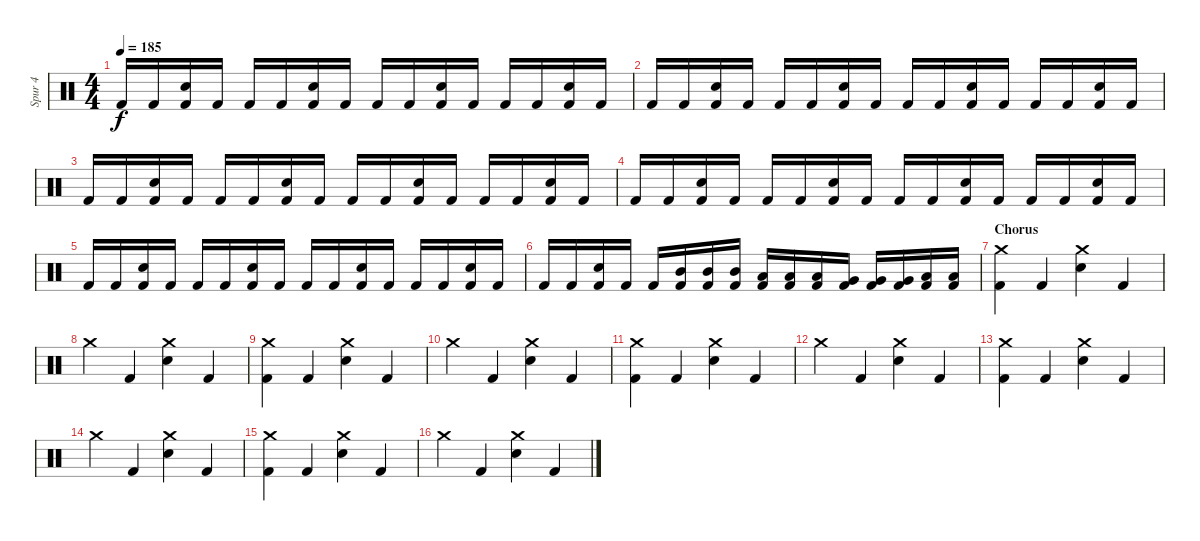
\track ("Spur 4" "Spur 4") {instrument percussion}
\staff {score}
\articulation defaults
\ts (4 4)
\tempo 185
\clef neutral
\ks c "Kick (hit) 2".16{dy f} "Kick (hit) 2".16
("Electric Snare (hit)" "Kick (hit) 2").16 "Kick (hit) 2".16 "Kick (hit) 2".16 "Kick (hit) 2".16 ("Electric Snare (hit)" "Kick (hit) 2").16 "Kick (hit) 2".16 "Kick (hit) 2".16 "Kick (hit) 2".16 ("Electric Snare (hit)" "Kick (hit) 2").16 "Kick (hit) 2".16 "Kick (hit) 2".16 "Kick (hit) 2".16 ("Electric Snare (hit)" "Kick (hit) 2").16 "Kick (hit) 2".16 |
"Kick (hit) 2".16 "Kick (hit) 2".16 ("Electric Snare (hit)" "Kick (hit) 2").16 "Kick (hit) 2".16 "Kick (hit) 2".16 "Kick (hit) 2".16 ("Electric Snare (hit)" "Kick (hit) 2").16 "Kick (hit) 2".16 "Kick (hit) 2".16 "Kick (hit) 2".16 ("Electric Snare (hit)" "Kick (hit) 2").16 "Kick (hit) 2".16 "Kick (hit) 2".16 "Kick (hit) 2".16 ("Electric Snare (hit)" "Kick (hit) 2").16 "Kick (hit) 2".16 |
"Kick (hit) 2".16 "Kick (hit) 2".16 ("Electric Snare (hit)" "Kick (hit) 2").16 "Kick (hit) 2".16 "Kick (hit) 2".16 "Kick (hit) 2".16 ("Electric Snare (hit)" "Kick (hit) 2").16 "Kick (hit) 2".16 "Kick (hit) 2".16 "Kick (hit) 2".16 ("Electric Snare (hit)" "Kick (hit) 2").16 "Kick (hit) 2".16 "Kick (hit) 2".16 "Kick (hit) 2".16 ("Electric Snare (hit)" "Kick (hit) 2").16 "Kick (hit) 2".16 |
"Kick (hit) 2".16 "Kick (hit) 2".16 ("Electric Snare (hit)" "Kick (hit) 2").16 "Kick (hit) 2".16 "Kick (hit) 2".16 "Kick (hit) 2".16 ("Electric Snare (hit)" "Kick (hit) 2").16 "Kick (hit) 2".16 "Kick (hit) 2".16 "Kick (hit) 2".16 ("Electric Snare (hit)" "Kick (hit) 2").16 "Kick (hit) 2".16 "Kick (hit) 2".16 "Kick (hit) 2".16 ("Electric Snare (hit)" "Kick (hit) 2").16 "Kick (hit) 2".16 |
"Kick (hit) 2".16 "Kick (hit) 2".16 ("Electric Snare (hit)" "Kick (hit) 2").16 "Kick (hit) 2".16 "Kick (hit) 2".16 "Kick (hit) 2".16 ("Electric Snare (hit)" "Kick (hit) 2").16 "Kick (hit) 2".16 "Kick (hit) 2".16 "Kick (hit) 2".16 ("Electric Snare (hit)" "Kick (hit) 2").16 "Kick (hit) 2".16 "Kick (hit) 2".16 "Kick (hit) 2".16 ("Electric Snare (hit)" "Kick (hit) 2").16 "Kick (hit) 2".16 |
"Kick (hit) 2".16 "Kick (hit) 2".16 ("Electric Snare (hit)" "Kick (hit) 2").16 "Kick (hit) 2".16 "Kick (hit) 2".16 ("Mid Tom (hit)" "Kick (hit) 2").16 ("Mid Tom (hit)" "Kick (hit) 2").16 ("Mid Tom (hit)" "Kick (hit) 2").16 ("Low Tom (hit)" "Kick (hit) 2").16 ("Low Tom (hit)" "Kick (hit) 2").16 ("Low Tom (hit)" "Kick (hit) 2").16 ("Very Low Tom (hit)" "Kick (hit) 2").16 ("Very Low Tom (hit)" "Kick (hit) 2").16 ("Very Low Tom (hit)" "Kick (hit) 2").16 ("Low Floor Tom (hit)" "Kick (hit) 2").16 ("Low Floor Tom (hit)" "Kick (hit) 2").16 |
\section ("" "Chorus")
("Crash medium (hit)" "Kick (hit) 2").4 "Kick (hit) 2".4 ("Crash medium (hit)" "Electric Snare (hit)").4 "Kick (hit) 2".4 |
"Crash medium (hit)".4 "Kick (hit) 2".4 ("Crash medium (hit)" "Electric Snare (hit)").4 "Kick (hit) 2".4 |
("Crash medium (hit)" "Kick (hit) 2").4 "Kick (hit) 2".4 ("Crash medium (hit)" "Electric Snare (hit)").4 "Kick (hit) 2".4 |
"Crash medium (hit)".4 "Kick (hit) 2".4 ("Crash medium (hit)" "Electric Snare (hit)").4 "Kick (hit) 2".4 |
("Crash medium (hit)" "Kick (hit) 2").4 "Kick (hit) 2".4 ("Crash medium (hit)" "Electric Snare (hit)").4 "Kick (hit) 2".4 |
"Crash medium (hit)".4 "Kick (hit) 2".4 ("Crash medium (hit)" "Electric Snare (hit)").4 "Kick (hit) 2".4 |
("Crash medium (hit)" "Kick (hit) 2").4 "Kick (hit) 2".4 ("Crash medium (hit)" "Electric Snare (hit)").4 "Kick (hit) 2".4 |
"Crash medium (hit)".4 "Kick (hit) 2".4 ("Crash medium (hit)" "Electric Snare (hit)").4 "Kick (hit) 2".4 |
("Crash medium (hit)" "Kick (hit) 2").4 "Kick (hit) 2".4 ("Crash medium (hit)" "Electric Snare (hit)").4 "Kick (hit) 2".4 |
"Crash medium (hit)".4 "Kick (hit) 2".4 ("Crash medium (hit)" "Electric Snare (hit)").4 "Kick (hit) 2".4
